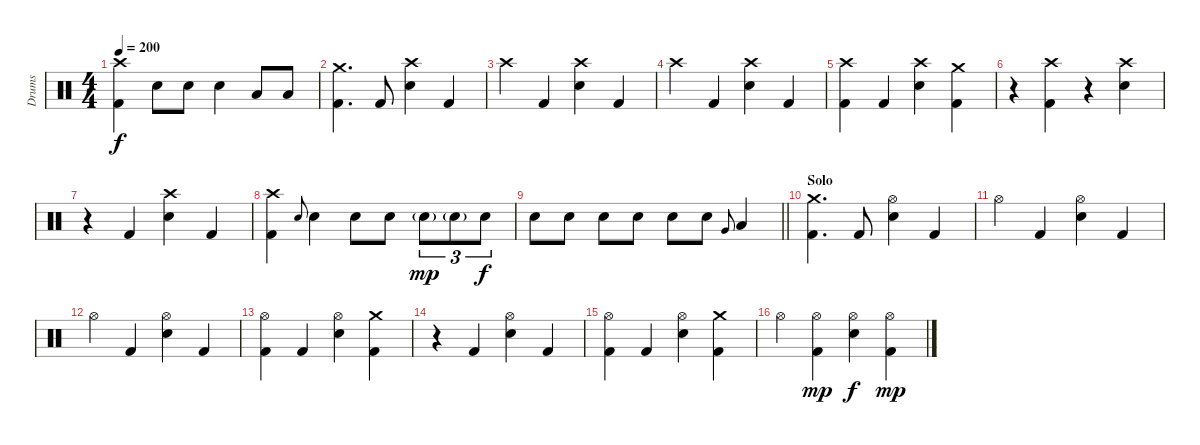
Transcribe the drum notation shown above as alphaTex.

\track ("Drums" "Drums") {instrument percussion}
\staff {score}
\articulation defaults
\ts (4 4)
\tempo 200
\clef neutral
\ks c
("Crash high (hit)" "Kick (hit) 2").4{dy f} "Electric Snare (hit)".8 "Electric Snare (hit)".8 "Electric Snare (hit)".4 "Low Tom (hit)".8 "Low Tom (hit)".8 |
("Crash medium (hit)" "Kick (hit) 2").4{d} "Kick (hit) 2".8 ("Crash high (hit)" "Electric Snare (hit)").4 "Kick (hit) 2".4 |
"Crash high (hit)".4 "Kick (hit) 2".4 ("Electric Snare (hit)" "Crash high (hit)").4 "Kick (hit) 2".4 |
"Crash high (hit)".4 "Kick (hit) 2".4 ("Electric Snare (hit)" "Crash high (hit)").4 "Kick (hit) 2".4 |
("Crash high (hit)" "Kick (hit) 2").4 "Kick (hit) 2".4 ("Crash high (hit)" "Electric Snare (hit)").4 ("Kick (hit) 2" "Crash medium (hit)").4 |
r.4 ("Kick (hit) 2" "Crash high (hit)").4 r.4 ("Electric Snare (hit)" "Crash high (hit)").4 |
r.4 "Kick (hit) 2".4 ("Crash high (hit)" "Electric Snare (hit)").4 "Kick (hit) 2".4 |
("Crash high (hit)" "Kick (hit) 2").4 "Electric Snare (hit)".8{gr onbeat} "Electric Snare (hit)".4 "Electric Snare (hit)".8 "Electric Snare (hit)".8 "Electric Snare (hit)"{g}.8{tu (3 2) dy mp} "Electric Snare (hit)"{g}.8{tu (3 2)} "Electric Snare (hit)".8{tu (3 2) dy f} |
\barLineRight lightlight "Electric Snare (hit)".8 "Electric Snare (hit)".8 "Electric Snare (hit)".8 "Electric Snare (hit)".8 "Electric Snare (hit)".8 "Electric Snare (hit)".8 "Very Low Tom (hit)".8{gr onbeat} "Low Floor Tom (hit)".4
|
\section ("" "Solo")
("Crash medium (hit)" "Kick (hit) 2").4{d} "Kick (hit) 2".8 ("Hi-Hat (open)" "Electric Snare (hit)").4 "Kick (hit) 2".4 |
"Hi-Hat (open)".4 "Kick (hit) 2".4 ("Electric Snare (hit)" "Hi-Hat (open)").4 "Kick (hit) 2".4 |
"Hi-Hat (open)".4 "Kick (hit) 2".4 ("Electric Snare (hit)" "Hi-Hat (open)").4 "Kick (hit) 2".4 |
("Hi-Hat (open)" "Kick (hit) 2").4 "Kick (hit) 2".4 ("Hi-Hat (open)" "Electric Snare (hit)").4 ("Crash medium (hit)" "Kick (hit) 2").4 |
r.4 "Kick (hit) 2".4 ("Electric Snare (hit)" "Hi-Hat (open)").4 "Kick (hit) 2".4 |
("Hi-Hat (open)" "Kick (hit) 2").4 "Kick (hit) 2".4 ("Hi-Hat (open)" "Electric Snare (hit)").4 ("Crash medium (hit)" "Kick (hit) 2").4 |
"Hi-Hat (open)".4 ("Kick (hit) 2" "Hi-Hat (open)").4{dy mp} ("Electric Snare (hit)" "Hi-Hat (open)").4{dy f} ("Hi-Hat (open)" "Kick (hit) 2").4{dy mp}
